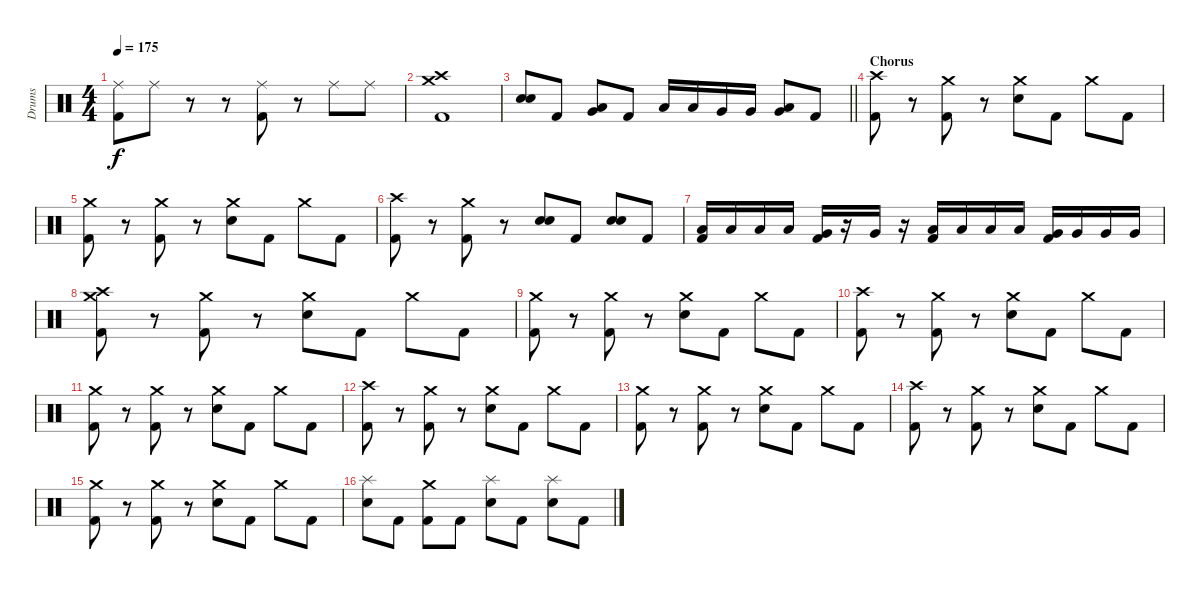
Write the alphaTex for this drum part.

\track ("Drums" "Drums") {instrument percussion}
\staff {score}
\articulation defaults
\ts (4 4)
\tempo 175
\clef neutral
\ks c
("Ride (middle)" "Kick (hit) 2").8{dy f} "Ride (middle)".8 r.8 r.8 ("Ride (middle)" "Kick (hit) 2").8 r.8 "Ride (middle)".8 "Ride (middle)".8 |
("Crash medium (hit)" "Crash high (hit)" "Kick (hit) 2").1 |
\barLineRight lightlight
("Electric Snare (hit)" "Electric Snare (hit)").8 "Kick (hit) 2".8 ("Low Tom (hit)" "Very Low Tom (hit)").8 "Kick (hit) 2".8 "Low Tom (hit)".16 "Low Tom (hit)".16 "Very Low Tom (hit)".16 "Very Low Tom (hit)".16 ("Low Tom (hit)" "Very Low Tom (hit)").8 "Kick (hit) 2".8 |
\section ("" "Chorus")
("Crash high (hit)" "Kick (hit) 2").8 r.8 ("Crash medium (hit)" "Kick (hit) 2").8 r.8 ("Crash medium (hit)" "Electric Snare (hit)").8 "Kick (hit) 2".8 "Crash medium (hit)".8 "Kick (hit) 2".8 |
("Crash medium (hit)" "Kick (hit) 2").8 r.8 ("Crash medium (hit)" "Kick (hit) 2").8 r.8 ("Crash medium (hit)" "Electric Snare (hit)").8 "Kick (hit) 2".8 "Crash medium (hit)".8 "Kick (hit) 2".8 |
("Crash high (hit)" "Kick (hit) 2").8 r.8 ("Crash medium (hit)" "Kick (hit) 2").8 r.8 ("Electric Snare (hit)" "Electric Snare (hit)").8 "Kick (hit) 2".8 ("Electric Snare (hit)" "Electric Snare (hit)").8 "Kick (hit) 2".8 |
("Low Tom (hit)" "Kick (hit) 2").16 "Low Tom (hit)".16 "Low Tom (hit)".16 "Low Tom (hit)".16 ("Very Low Tom (hit)" "Kick (hit) 2").16 r.16 "Very Low Tom (hit)".16 r.16 ("Low Tom (hit)" "Kick (hit) 2").16 "Low Tom (hit)".16 "Low Tom (hit)".16 "Low Tom (hit)".16 ("Very Low Tom (hit)" "Kick (hit) 2").16 "Very Low Tom (hit)".16 "Very Low Tom (hit)".16 "Very Low Tom (hit)".16 |
("Crash medium (hit)" "Crash high (hit)" "Kick (hit) 2").8 r.8 ("Crash medium (hit)" "Kick (hit) 2").8 r.8 ("Crash medium (hit)" "Electric Snare (hit)").8 "Kick (hit) 2".8 "Crash medium (hit)".8 "Kick (hit) 2".8 |
("Crash medium (hit)" "Kick (hit) 2").8 r.8 ("Crash medium (hit)" "Kick (hit) 2").8 r.8 ("Crash medium (hit)" "Electric Snare (hit)").8 "Kick (hit) 2".8 "Crash medium (hit)".8 "Kick (hit) 2".8 |
("Crash high (hit)" "Kick (hit) 2").8 r.8 ("Crash medium (hit)" "Kick (hit) 2").8 r.8 ("Crash medium (hit)" "Electric Snare (hit)").8 "Kick (hit) 2".8 "Crash medium (hit)".8 "Kick (hit) 2".8 |
("Crash medium (hit)" "Kick (hit) 2").8 r.8 ("Crash medium (hit)" "Kick (hit) 2").8 r.8 ("Crash medium (hit)" "Electric Snare (hit)").8 "Kick (hit) 2".8 "Crash medium (hit)".8 "Kick (hit) 2".8 |
("Crash high (hit)" "Kick (hit) 2").8 r.8 ("Crash medium (hit)" "Kick (hit) 2").8 r.8 ("Crash medium (hit)" "Electric Snare (hit)").8 "Kick (hit) 2".8 "Crash medium (hit)".8 "Kick (hit) 2".8 |
("Crash medium (hit)" "Kick (hit) 2").8 r.8 ("Crash medium (hit)" "Kick (hit) 2").8 r.8 ("Crash medium (hit)" "Electric Snare (hit)").8 "Kick (hit) 2".8 "Crash medium (hit)".8 "Kick (hit) 2".8 |
("Crash high (hit)" "Kick (hit) 2").8 r.8 ("Crash medium (hit)" "Kick (hit) 2").8 r.8 ("Crash medium (hit)" "Electric Snare (hit)").8 "Kick (hit) 2".8 "Crash medium (hit)".8 "Kick (hit) 2".8 |
("Crash medium (hit)" "Kick (hit) 2").8 r.8 ("Crash medium (hit)" "Kick (hit) 2").8 r.8 ("Crash medium (hit)" "Electric Snare (hit)").8 "Kick (hit) 2".8 "Crash medium (hit)".8 "Kick (hit) 2".8 |
("Splash (hit)" "Electric Snare (hit)").8 "Kick (hit) 2".8 ("Crash medium (hit)" "Kick (hit) 2").8 "Kick (hit) 2".8 ("Splash (hit)" "Electric Snare (hit)").8 "Kick (hit) 2".8 ("Splash (hit)" "Electric Snare (hit)").8 "Kick (hit) 2".8
